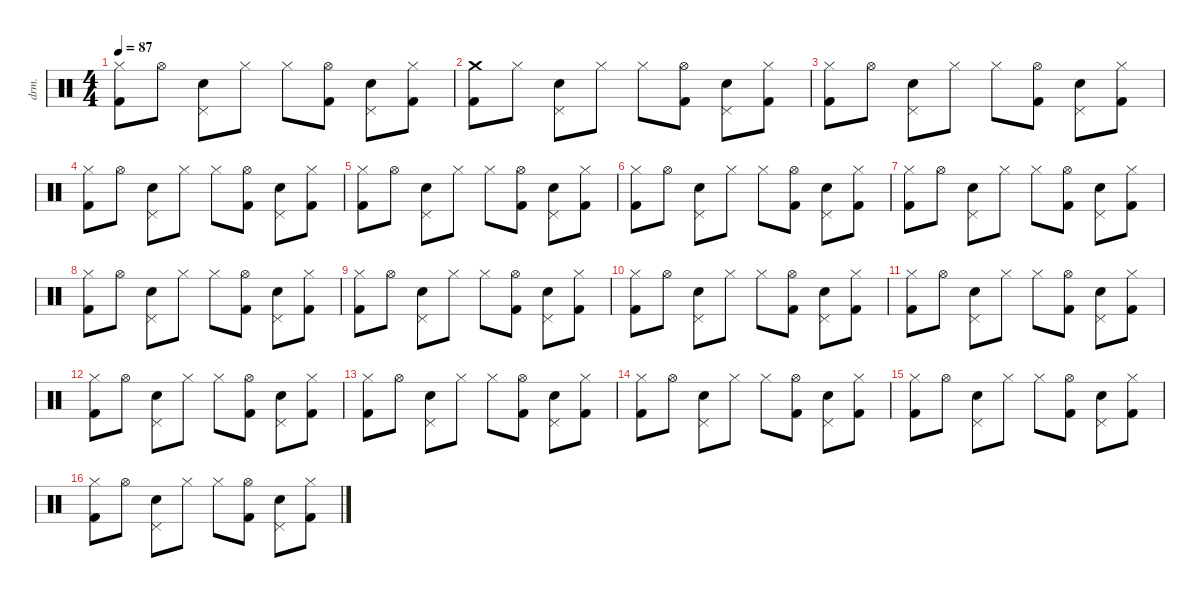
\defaultSystemsLayout 4
\hideDynamics
\bracketExtendMode nobrackets
\otherSystemsTrackNameOrientation horizontal
\track ("Drums" "drm.") {instrument percussion}
\staff {score}
\articulation defaults
\ts (4 4)
\tempo 87
\clef neutral
\ks c
("Hi-Hat (closed)" "Kick (hit) 2").8{dy f} "Hi-Hat (open)".8 ("Pedal Hi-Hat (hit)" "Snare (hit) 2").8 "Hi-Hat (closed)".8 "Hi-Hat (closed)".8 ("Hi-Hat (open)" "Kick (hit) 2").8 ("Pedal Hi-Hat (hit)" "Snare (hit) 2").8 ("Hi-Hat (closed)" "Kick (hit) 2").8 |
("Crash medium (hit)" "Kick (hit) 2").8 "Hi-Hat (closed)".8 ("Pedal Hi-Hat (hit)" "Snare (hit) 2").8 "Hi-Hat (closed)".8 "Hi-Hat (closed)".8 ("Hi-Hat (open)" "Kick (hit) 2").8 ("Pedal Hi-Hat (hit)" "Snare (hit) 2").8 ("Hi-Hat (closed)" "Kick (hit) 2").8 |
("Hi-Hat (closed)" "Kick (hit) 2").8 "Hi-Hat (open)".8 ("Pedal Hi-Hat (hit)" "Snare (hit) 2").8 "Hi-Hat (closed)".8 "Hi-Hat (closed)".8 ("Hi-Hat (open)" "Kick (hit) 2").8 ("Pedal Hi-Hat (hit)" "Snare (hit) 2").8 ("Hi-Hat (closed)" "Kick (hit) 2").8 |
("Hi-Hat (closed)" "Kick (hit) 2").8 "Hi-Hat (open)".8 ("Pedal Hi-Hat (hit)" "Snare (hit) 2").8 "Hi-Hat (closed)".8 "Hi-Hat (closed)".8 ("Hi-Hat (open)" "Kick (hit) 2").8 ("Pedal Hi-Hat (hit)" "Snare (hit) 2").8 ("Hi-Hat (closed)" "Kick (hit) 2").8 |
("Hi-Hat (closed)" "Kick (hit) 2").8 "Hi-Hat (open)".8 ("Pedal Hi-Hat (hit)" "Snare (hit) 2").8 "Hi-Hat (closed)".8 "Hi-Hat (closed)".8 ("Hi-Hat (open)" "Kick (hit) 2").8 ("Pedal Hi-Hat (hit)" "Snare (hit) 2").8 ("Hi-Hat (closed)" "Kick (hit) 2").8 |
("Hi-Hat (closed)" "Kick (hit) 2").8 "Hi-Hat (open)".8 ("Pedal Hi-Hat (hit)" "Snare (hit) 2").8 "Hi-Hat (closed)".8 "Hi-Hat (closed)".8 ("Hi-Hat (open)" "Kick (hit) 2").8 ("Pedal Hi-Hat (hit)" "Snare (hit) 2").8 ("Hi-Hat (closed)" "Kick (hit) 2").8 |
("Hi-Hat (closed)" "Kick (hit) 2").8 "Hi-Hat (open)".8 ("Pedal Hi-Hat (hit)" "Snare (hit) 2").8 "Hi-Hat (closed)".8 "Hi-Hat (closed)".8 ("Hi-Hat (open)" "Kick (hit) 2").8 ("Pedal Hi-Hat (hit)" "Snare (hit) 2").8 ("Hi-Hat (closed)" "Kick (hit) 2").8 |
("Hi-Hat (closed)" "Kick (hit) 2").8 "Hi-Hat (open)".8 ("Pedal Hi-Hat (hit)" "Snare (hit) 2").8 "Hi-Hat (closed)".8 "Hi-Hat (closed)".8 ("Hi-Hat (open)" "Kick (hit) 2").8 ("Pedal Hi-Hat (hit)" "Snare (hit) 2").8 ("Hi-Hat (closed)" "Kick (hit) 2").8 |
("Hi-Hat (closed)" "Kick (hit) 2").8 "Hi-Hat (open)".8 ("Pedal Hi-Hat (hit)" "Snare (hit) 2").8 "Hi-Hat (closed)".8 "Hi-Hat (closed)".8 ("Hi-Hat (open)" "Kick (hit) 2").8 ("Pedal Hi-Hat (hit)" "Snare (hit) 2").8 ("Hi-Hat (closed)" "Kick (hit) 2").8 |
("Hi-Hat (closed)" "Kick (hit) 2").8 "Hi-Hat (open)".8 ("Pedal Hi-Hat (hit)" "Snare (hit) 2").8 "Hi-Hat (closed)".8 "Hi-Hat (closed)".8 ("Hi-Hat (open)" "Kick (hit) 2").8 ("Pedal Hi-Hat (hit)" "Snare (hit) 2").8 ("Hi-Hat (closed)" "Kick (hit) 2").8 |
("Hi-Hat (closed)" "Kick (hit) 2").8 "Hi-Hat (open)".8 ("Pedal Hi-Hat (hit)" "Snare (hit) 2").8 "Hi-Hat (closed)".8 "Hi-Hat (closed)".8 ("Hi-Hat (open)" "Kick (hit) 2").8 ("Pedal Hi-Hat (hit)" "Snare (hit) 2").8 ("Hi-Hat (closed)" "Kick (hit) 2").8 |
("Hi-Hat (closed)" "Kick (hit) 2").8 "Hi-Hat (open)".8 ("Pedal Hi-Hat (hit)" "Snare (hit) 2").8 "Hi-Hat (closed)".8 "Hi-Hat (closed)".8 ("Hi-Hat (open)" "Kick (hit) 2").8 ("Pedal Hi-Hat (hit)" "Snare (hit) 2").8 ("Hi-Hat (closed)" "Kick (hit) 2").8 |
("Hi-Hat (closed)" "Kick (hit) 2").8 "Hi-Hat (open)".8 ("Pedal Hi-Hat (hit)" "Snare (hit) 2").8 "Hi-Hat (closed)".8 "Hi-Hat (closed)".8 ("Hi-Hat (open)" "Kick (hit) 2").8 ("Pedal Hi-Hat (hit)" "Snare (hit) 2").8 ("Hi-Hat (closed)" "Kick (hit) 2").8 |
("Hi-Hat (closed)" "Kick (hit) 2").8 "Hi-Hat (open)".8 ("Pedal Hi-Hat (hit)" "Snare (hit) 2").8 "Hi-Hat (closed)".8 "Hi-Hat (closed)".8 ("Hi-Hat (open)" "Kick (hit) 2").8 ("Pedal Hi-Hat (hit)" "Snare (hit) 2").8 ("Hi-Hat (closed)" "Kick (hit) 2").8 |
("Hi-Hat (closed)" "Kick (hit) 2").8 "Hi-Hat (open)".8 ("Pedal Hi-Hat (hit)" "Snare (hit) 2").8 "Hi-Hat (closed)".8 "Hi-Hat (closed)".8 ("Hi-Hat (open)" "Kick (hit) 2").8 ("Pedal Hi-Hat (hit)" "Snare (hit) 2").8 ("Hi-Hat (closed)" "Kick (hit) 2").8 |
("Hi-Hat (closed)" "Kick (hit) 2").8 "Hi-Hat (open)".8 ("Pedal Hi-Hat (hit)" "Snare (hit) 2").8 "Hi-Hat (closed)".8 "Hi-Hat (closed)".8 ("Hi-Hat (open)" "Kick (hit) 2").8 ("Pedal Hi-Hat (hit)" "Snare (hit) 2").8 ("Hi-Hat (closed)" "Kick (hit) 2").8
